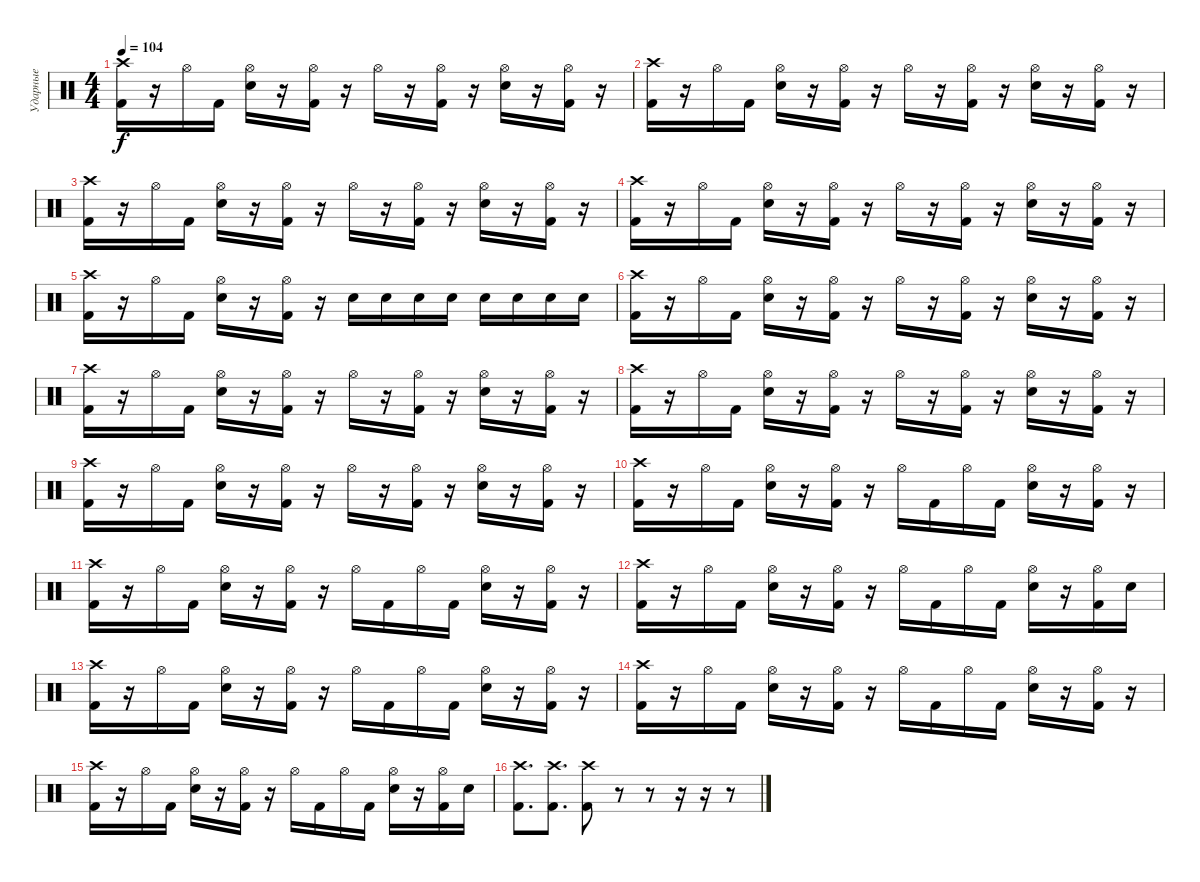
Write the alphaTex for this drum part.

\track ("Ударные" "Ударные") {instrument percussion}
\staff {score}
\articulation defaults
\ts (4 4)
\tempo 104
\clef neutral
\ks c
("Crash high (hit)" "Kick (hit) 2").16{dy f} r.16 "Hi-Hat (open)".16 "Kick (hit) 2".16 ("Hi-Hat (open)" "Snare (hit) 2").16 r.16 ("Hi-Hat (open)" "Kick (hit) 2").16 r.16 "Hi-Hat (open)".16 r.16 ("Hi-Hat (open)" "Kick (hit) 2").16 r.16 ("Hi-Hat (open)" "Snare (hit) 2").16 r.16 ("Hi-Hat (open)" "Kick (hit) 2").16 r.16 |
("Crash high (hit)" "Kick (hit) 2").16 r.16 "Hi-Hat (open)".16 "Kick (hit) 2".16 ("Hi-Hat (open)" "Snare (hit) 2").16 r.16 ("Hi-Hat (open)" "Kick (hit) 2").16 r.16 "Hi-Hat (open)".16 r.16 ("Hi-Hat (open)" "Kick (hit) 2").16 r.16 ("Hi-Hat (open)" "Snare (hit) 2").16 r.16 ("Hi-Hat (open)" "Kick (hit) 2").16 r.16 |
("Crash high (hit)" "Kick (hit) 2").16 r.16 "Hi-Hat (open)".16 "Kick (hit) 2".16 ("Hi-Hat (open)" "Snare (hit) 2").16 r.16 ("Hi-Hat (open)" "Kick (hit) 2").16 r.16 "Hi-Hat (open)".16 r.16 ("Hi-Hat (open)" "Kick (hit) 2").16 r.16 ("Hi-Hat (open)" "Snare (hit) 2").16 r.16 ("Hi-Hat (open)" "Kick (hit) 2").16 r.16 |
("Crash high (hit)" "Kick (hit) 2").16 r.16 "Hi-Hat (open)".16 "Kick (hit) 2".16 ("Hi-Hat (open)" "Snare (hit) 2").16 r.16 ("Hi-Hat (open)" "Kick (hit) 2").16 r.16 "Hi-Hat (open)".16 r.16 ("Hi-Hat (open)" "Kick (hit) 2").16 r.16 ("Hi-Hat (open)" "Snare (hit) 2").16 r.16 ("Hi-Hat (open)" "Kick (hit) 2").16 r.16 |
("Crash high (hit)" "Kick (hit) 2").16 r.16 "Hi-Hat (open)".16 "Kick (hit) 2".16 ("Hi-Hat (open)" "Snare (hit) 2").16 r.16 ("Hi-Hat (open)" "Kick (hit) 2").16 r.16 "Snare (hit) 2".16 "Snare (hit) 2".16 "Snare (hit) 2".16 "Snare (hit) 2".16 "Snare (hit) 2".16 "Snare (hit) 2".16 "Snare (hit) 2".16 "Snare (hit) 2".16 |
("Crash high (hit)" "Kick (hit) 2").16 r.16 "Hi-Hat (open)".16 "Kick (hit) 2".16 ("Hi-Hat (open)" "Snare (hit) 2").16 r.16 ("Hi-Hat (open)" "Kick (hit) 2").16 r.16 "Hi-Hat (open)".16 r.16 ("Hi-Hat (open)" "Kick (hit) 2").16 r.16 ("Hi-Hat (open)" "Snare (hit) 2").16 r.16 ("Hi-Hat (open)" "Kick (hit) 2").16 r.16 |
("Crash high (hit)" "Kick (hit) 2").16 r.16 "Hi-Hat (open)".16 "Kick (hit) 2".16 ("Hi-Hat (open)" "Snare (hit) 2").16 r.16 ("Hi-Hat (open)" "Kick (hit) 2").16 r.16 "Hi-Hat (open)".16 r.16 ("Hi-Hat (open)" "Kick (hit) 2").16 r.16 ("Hi-Hat (open)" "Snare (hit) 2").16 r.16 ("Hi-Hat (open)" "Kick (hit) 2").16 r.16 |
("Crash high (hit)" "Kick (hit) 2").16 r.16 "Hi-Hat (open)".16 "Kick (hit) 2".16 ("Hi-Hat (open)" "Snare (hit) 2").16 r.16 ("Hi-Hat (open)" "Kick (hit) 2").16 r.16 "Hi-Hat (open)".16 r.16 ("Hi-Hat (open)" "Kick (hit) 2").16 r.16 ("Hi-Hat (open)" "Snare (hit) 2").16 r.16 ("Hi-Hat (open)" "Kick (hit) 2").16 r.16 |
("Crash high (hit)" "Kick (hit) 2").16 r.16 "Hi-Hat (open)".16 "Kick (hit) 2".16 ("Hi-Hat (open)" "Snare (hit) 2").16 r.16 ("Hi-Hat (open)" "Kick (hit) 2").16 r.16 "Hi-Hat (open)".16 r.16 ("Hi-Hat (open)" "Kick (hit) 2").16 r.16 ("Hi-Hat (open)" "Snare (hit) 2").16 r.16 ("Hi-Hat (open)" "Kick (hit) 2").16 r.16 |
("Crash high (hit)" "Kick (hit) 2").16 r.16 "Hi-Hat (open)".16 "Kick (hit) 2".16 ("Hi-Hat (open)" "Snare (hit) 2").16 r.16 ("Hi-Hat (open)" "Kick (hit) 2").16 r.16 "Hi-Hat (open)".16 "Kick (hit) 2".16 "Hi-Hat (open)".16 "Kick (hit) 2".16 ("Hi-Hat (open)" "Snare (hit) 2").16 r.16 ("Hi-Hat (open)" "Kick (hit) 2").16 r.16 |
("Crash high (hit)" "Kick (hit) 2").16 r.16 "Hi-Hat (open)".16 "Kick (hit) 2".16 ("Hi-Hat (open)" "Snare (hit) 2").16 r.16 ("Hi-Hat (open)" "Kick (hit) 2").16 r.16 "Hi-Hat (open)".16 "Kick (hit) 2".16 "Hi-Hat (open)".16 "Kick (hit) 2".16 ("Hi-Hat (open)" "Snare (hit) 2").16 r.16 ("Hi-Hat (open)" "Kick (hit) 2").16 r.16 |
("Crash high (hit)" "Kick (hit) 2").16 r.16 "Hi-Hat (open)".16 "Kick (hit) 2".16 ("Hi-Hat (open)" "Snare (hit) 2").16 r.16 ("Hi-Hat (open)" "Kick (hit) 2").16 r.16 "Hi-Hat (open)".16 "Kick (hit) 2".16 "Hi-Hat (open)".16 "Kick (hit) 2".16 ("Hi-Hat (open)" "Snare (hit) 2").16 r.16 ("Hi-Hat (open)" "Kick (hit) 2").16 "Snare (hit) 2".16 |
("Crash high (hit)" "Kick (hit) 2").16 r.16 "Hi-Hat (open)".16 "Kick (hit) 2".16 ("Hi-Hat (open)" "Snare (hit) 2").16 r.16 ("Hi-Hat (open)" "Kick (hit) 2").16 r.16 "Hi-Hat (open)".16 "Kick (hit) 2".16 "Hi-Hat (open)".16 "Kick (hit) 2".16 ("Hi-Hat (open)" "Snare (hit) 2").16 r.16 ("Hi-Hat (open)" "Kick (hit) 2").16 r.16 |
("Crash high (hit)" "Kick (hit) 2").16 r.16 "Hi-Hat (open)".16 "Kick (hit) 2".16 ("Hi-Hat (open)" "Snare (hit) 2").16 r.16 ("Hi-Hat (open)" "Kick (hit) 2").16 r.16 "Hi-Hat (open)".16 "Kick (hit) 2".16 "Hi-Hat (open)".16 "Kick (hit) 2".16 ("Hi-Hat (open)" "Snare (hit) 2").16 r.16 ("Hi-Hat (open)" "Kick (hit) 2").16 r.16 |
("Crash high (hit)" "Kick (hit) 2").16 r.16 "Hi-Hat (open)".16 "Kick (hit) 2".16 ("Hi-Hat (open)" "Snare (hit) 2").16 r.16 ("Hi-Hat (open)" "Kick (hit) 2").16 r.16 "Hi-Hat (open)".16 "Kick (hit) 2".16 "Hi-Hat (open)".16 "Kick (hit) 2".16 ("Hi-Hat (open)" "Snare (hit) 2").16 r.16 ("Hi-Hat (open)" "Kick (hit) 2").16 "Snare (hit) 2".16 |
("Crash high (hit)" "Kick (hit) 2").8{d} ("Crash high (hit)" "Kick (hit) 2").8{d} ("Crash high (hit)" "Kick (hit) 2").8 r.8 r.8 r.16 r.16 r.8
